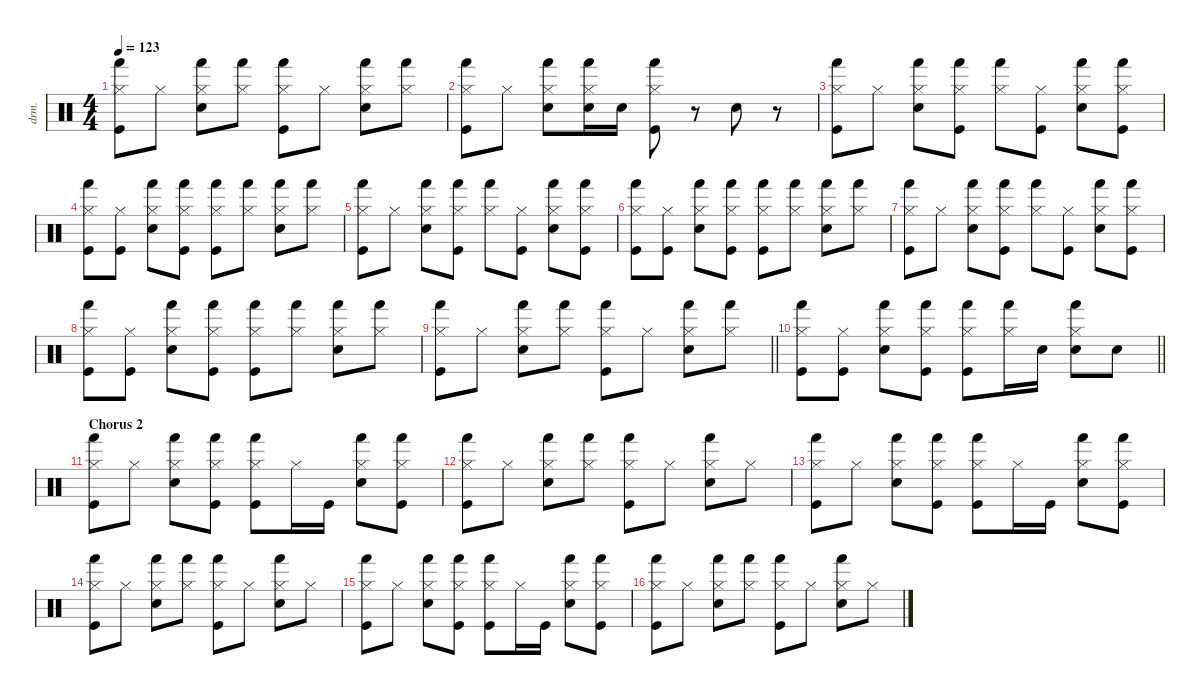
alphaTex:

\defaultSystemsLayout 4
\hideDynamics
\bracketExtendMode nobrackets
\otherSystemsTrackNameOrientation horizontal
\track ("Drums" "drm.") {defaultSystemsLayout 4 instrument percussion}
\staff {score}
\articulation defaults
\ts (4 4)
\tempo 123
\clef neutral
\ks c
("Hi-Hat (closed)" "Kick (hit)" "Hand (hit)").8{dy fff beam Down} "Hi-Hat (closed)".8{beam Down} ("Snare (hit) 2" "Hi-Hat (closed)" "Hand (hit)").8{beam Down} ("Hand (hit)" "Hi-Hat (closed)").8{beam Down} ("Hi-Hat (closed)" "Kick (hit)" "Hand (hit)").8{beam Down} "Hi-Hat (closed)".8{beam Down} ("Hi-Hat (closed)" "Snare (hit) 2" "Hand (hit)").8{beam Down} ("Hi-Hat (closed)" "Hand (hit)").8{beam Down} |
("Hi-Hat (closed)" "Kick (hit)" "Hand (hit)").8{beam Down} "Hi-Hat (closed)".8{beam Down} ("Hi-Hat (closed)" "Snare (hit) 2" "Hand (hit)").8{beam Down} ("Hi-Hat (closed)" "Snare (hit) 2" "Hand (hit)").16{beam Down} "Snare (hit) 2".16{beam Down} ("Hi-Hat (closed)" "Hand (hit)" "Kick (hit)").8{beam Down} r.8{beam Down} "Snare (hit) 2".8{beam Down} r.8{beam Down} |
("Kick (hit)" "Hand (hit)" "Hi-Hat (closed)").8{beam Down} "Hi-Hat (closed)".8{beam Down} ("Snare (hit) 2" "Hand (hit)" "Hi-Hat (closed)").8{beam Down} ("Hi-Hat (closed)" "Hand (hit)" "Kick (hit)").8{beam Down} ("Hi-Hat (closed)" "Hand (hit)").8{beam Down} ("Kick (hit)" "Hi-Hat (closed)").8{beam Down} ("Snare (hit) 2" "Hi-Hat (closed)" "Hand (hit)").8{beam Down} ("Hand (hit)" "Hi-Hat (closed)" "Kick (hit)").8{beam Down} |
("Hand (hit)" "Kick (hit)" "Hi-Hat (closed)").8{beam Down} ("Kick (hit)" "Hi-Hat (closed)").8{beam Down} ("Hand (hit)" "Hi-Hat (closed)" "Snare (hit) 2").8{beam Down} ("Kick (hit)" "Hand (hit)" "Hi-Hat (closed)").8{beam Down} ("Kick (hit)" "Hi-Hat (closed)" "Hand (hit)").8{beam Down} ("Hand (hit)" "Hi-Hat (closed)").8{beam Down} ("Snare (hit) 2" "Hand (hit)" "Hi-Hat (closed)").8{beam Down} ("Hand (hit)" "Hi-Hat (closed)").8{beam Down} |
("Kick (hit)" "Hand (hit)" "Hi-Hat (closed)").8{beam Down} "Hi-Hat (closed)".8{beam Down} ("Snare (hit) 2" "Hand (hit)" "Hi-Hat (closed)").8{beam Down} ("Hi-Hat (closed)" "Hand (hit)" "Kick (hit)").8{beam Down} ("Hi-Hat (closed)" "Hand (hit)").8{beam Down} ("Kick (hit)" "Hi-Hat (closed)").8{beam Down} ("Snare (hit) 2" "Hi-Hat (closed)" "Hand (hit)").8{beam Down} ("Hand (hit)" "Hi-Hat (closed)" "Kick (hit)").8{beam Down} |
("Hand (hit)" "Kick (hit)" "Hi-Hat (closed)").8{beam Down} ("Kick (hit)" "Hi-Hat (closed)").8{beam Down} ("Hand (hit)" "Hi-Hat (closed)" "Snare (hit) 2").8{beam Down} ("Kick (hit)" "Hand (hit)" "Hi-Hat (closed)").8{beam Down} ("Kick (hit)" "Hi-Hat (closed)" "Hand (hit)").8{beam Down} ("Hand (hit)" "Hi-Hat (closed)").8{beam Down} ("Snare (hit) 2" "Hand (hit)" "Hi-Hat (closed)").8{beam Down} ("Hand (hit)" "Hi-Hat (closed)").8{beam Down} |
("Kick (hit)" "Hand (hit)" "Hi-Hat (closed)").8{beam Down} "Hi-Hat (closed)".8{beam Down} ("Snare (hit) 2" "Hand (hit)" "Hi-Hat (closed)").8{beam Down} ("Hi-Hat (closed)" "Hand (hit)" "Kick (hit)").8{beam Down} ("Hi-Hat (closed)" "Hand (hit)").8{beam Down} ("Kick (hit)" "Hi-Hat (closed)").8{beam Down} ("Snare (hit) 2" "Hi-Hat (closed)" "Hand (hit)").8{beam Down} ("Hand (hit)" "Hi-Hat (closed)" "Kick (hit)").8{beam Down} |
("Hand (hit)" "Kick (hit)" "Hi-Hat (closed)").8{beam Down} ("Kick (hit)" "Hi-Hat (closed)").8{beam Down} ("Hand (hit)" "Hi-Hat (closed)" "Snare (hit) 2").8{beam Down} ("Kick (hit)" "Hand (hit)" "Hi-Hat (closed)").8{beam Down} ("Kick (hit)" "Hi-Hat (closed)" "Hand (hit)").8{beam Down} ("Hand (hit)" "Hi-Hat (closed)").8{beam Down} ("Snare (hit) 2" "Hand (hit)" "Hi-Hat (closed)").8{beam Down} ("Hand (hit)" "Hi-Hat (closed)").8{beam Down} |
\barLineRight lightlight
("Hi-Hat (closed)" "Kick (hit)" "Hand (hit)").8{beam Down} "Hi-Hat (closed)".8{beam Down} ("Snare (hit) 2" "Hi-Hat (closed)" "Hand (hit)").8{beam Down} ("Hi-Hat (closed)" "Hand (hit)").8{beam Down} ("Hi-Hat (closed)" "Hand (hit)" "Kick (hit)").8{beam Down} "Hi-Hat (closed)".8{beam Down} ("Hi-Hat (closed)" "Snare (hit) 2" "Hand (hit)").8{beam Down} ("Hi-Hat (closed)" "Hand (hit)").8{beam Down} |
\barLineRight lightlight
("Hi-Hat (closed)" "Hand (hit)" "Kick (hit)").8{beam Down} ("Kick (hit)" "Hi-Hat (closed)").8{beam Down} ("Hand (hit)" "Hi-Hat (closed)" "Snare (hit) 2").8{beam Down} ("Hi-Hat (closed)" "Kick (hit)" "Hand (hit)").8{beam Down} ("Hi-Hat (closed)" "Hand (hit)" "Kick (hit)").8{beam Down} ("Hand (hit)" "Hi-Hat (closed)").16{beam Down} "Snare (hit) 2".16{beam Down} ("Hand (hit)" "Hi-Hat (closed)" "Snare (hit) 2").8{beam Down} "Snare (hit) 2".8{beam Down} |
\section ("" "Chorus 2")
("Hand (hit)" "Hi-Hat (closed)" "Kick (hit)").8{beam Down} "Hi-Hat (closed)".8{beam Down} ("Hi-Hat (closed)" "Hand (hit)" "Snare (hit) 2").8{beam Down} ("Hi-Hat (closed)" "Hand (hit)" "Kick (hit)").8{beam Down} ("Hi-Hat (closed)" "Hand (hit)" "Kick (hit)").8{beam Down} "Hi-Hat (closed)".16{beam Down} "Kick (hit)".16{beam Down} ("Hi-Hat (closed)" "Snare (hit) 2" "Hand (hit)").8{beam Down} ("Hi-Hat (closed)" "Hand (hit)" "Kick (hit)").8{beam Down} |
("Hi-Hat (closed)" "Kick (hit)" "Hand (hit)").8{beam Down} "Hi-Hat (closed)".8{beam Down} ("Snare (hit) 2" "Hand (hit)" "Hi-Hat (closed)").8{beam Down} ("Hi-Hat (closed)" "Hand (hit)").8{beam Down} ("Hi-Hat (closed)" "Kick (hit)" "Hand (hit)").8{beam Down} "Hi-Hat (closed)".8{beam Down} ("Snare (hit) 2" "Hand (hit)" "Hi-Hat (closed)").8{beam Down} "Hi-Hat (closed)".8{beam Down} |
("Hand (hit)" "Hi-Hat (closed)" "Kick (hit)").8{beam Down} "Hi-Hat (closed)".8{beam Down} ("Hi-Hat (closed)" "Hand (hit)" "Snare (hit) 2").8{beam Down} ("Hi-Hat (closed)" "Hand (hit)" "Kick (hit)").8{beam Down} ("Hi-Hat (closed)" "Hand (hit)" "Kick (hit)").8{beam Down} "Hi-Hat (closed)".16{beam Down} "Kick (hit)".16{beam Down} ("Hi-Hat (closed)" "Snare (hit) 2" "Hand (hit)").8{beam Down} ("Hi-Hat (closed)" "Hand (hit)" "Kick (hit)").8{beam Down} |
("Hi-Hat (closed)" "Kick (hit)" "Hand (hit)").8{beam Down} "Hi-Hat (closed)".8{beam Down} ("Snare (hit) 2" "Hand (hit)" "Hi-Hat (closed)").8{beam Down} ("Hi-Hat (closed)" "Hand (hit)").8{beam Down} ("Hi-Hat (closed)" "Kick (hit)" "Hand (hit)").8{beam Down} "Hi-Hat (closed)".8{beam Down} ("Snare (hit) 2" "Hand (hit)" "Hi-Hat (closed)").8{beam Down} "Hi-Hat (closed)".8{beam Down} |
("Hand (hit)" "Hi-Hat (closed)" "Kick (hit)").8{beam Down} "Hi-Hat (closed)".8{beam Down} ("Hi-Hat (closed)" "Hand (hit)" "Snare (hit) 2").8{beam Down} ("Hi-Hat (closed)" "Hand (hit)" "Kick (hit)").8{beam Down} ("Hi-Hat (closed)" "Hand (hit)" "Kick (hit)").8{beam Down} "Hi-Hat (closed)".16{beam Down} "Kick (hit)".16{beam Down} ("Hi-Hat (closed)" "Snare (hit) 2" "Hand (hit)").8{beam Down} ("Hi-Hat (closed)" "Hand (hit)" "Kick (hit)").8{beam Down} |
("Hi-Hat (closed)" "Kick (hit)" "Hand (hit)").8{beam Down} "Hi-Hat (closed)".8{beam Down} ("Snare (hit) 2" "Hand (hit)" "Hi-Hat (closed)").8{beam Down} ("Hi-Hat (closed)" "Hand (hit)").8{beam Down} ("Hi-Hat (closed)" "Kick (hit)" "Hand (hit)").8{beam Down} "Hi-Hat (closed)".8{beam Down} ("Snare (hit) 2" "Hand (hit)" "Hi-Hat (closed)").8{beam Down} "Hi-Hat (closed)".8{beam Down}
